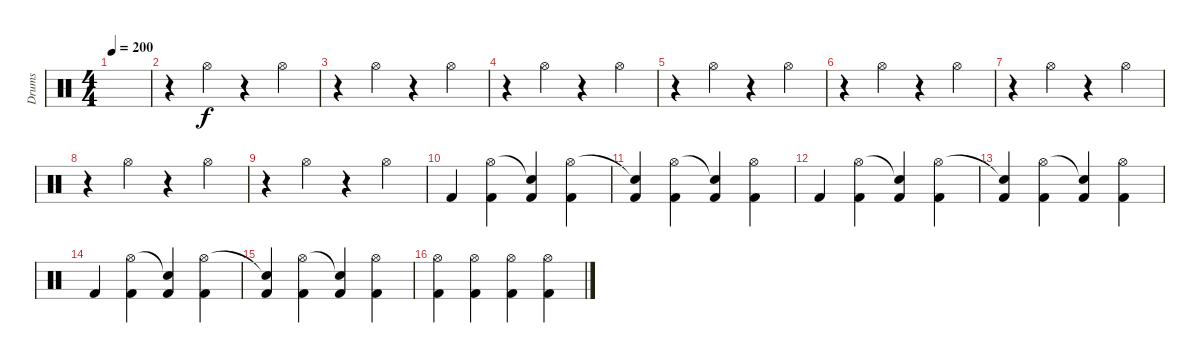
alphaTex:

\track ("Drums" "Drums") {instrument percussion}
\staff {score}
\articulation defaults
\ts (4 4)
\tempo 200
\clef neutral
\ks c
|
r.4 "Hi-Hat (open)".4 r.4 "Hi-Hat (open)".4 |
r.4 "Hi-Hat (open)".4 r.4 "Hi-Hat (open)".4 |
r.4 "Hi-Hat (open)".4 r.4 "Hi-Hat (open)".4 |
r.4 "Hi-Hat (open)".4 r.4 "Hi-Hat (open)".4 |
r.4 "Hi-Hat (open)".4 r.4 "Hi-Hat (open)".4 |
r.4 "Hi-Hat (open)".4 r.4 "Hi-Hat (open)".4 |
r.4 "Hi-Hat (open)".4 r.4 "Hi-Hat (open)".4 |
r.4 "Hi-Hat (open)".4 r.4 "Hi-Hat (open)".4 |
"Kick (hit) 2".4 ("Hi-Hat (open)" "Kick (hit) 2").4 ("Snare (hit)"{t} "Kick (hit) 2").4 ("Hi-Hat (open)" "Kick (hit) 2").4 |
("Snare (hit)"{t} "Kick (hit) 2").4 ("Hi-Hat (open)" "Kick (hit) 2").4 ("Snare (hit)"{t} "Kick (hit) 2").4 ("Hi-Hat (open)" "Kick (hit) 2").4 |
"Kick (hit) 2".4 ("Hi-Hat (open)" "Kick (hit) 2").4 ("Snare (hit)"{t} "Kick (hit) 2").4 ("Hi-Hat (open)" "Kick (hit) 2").4 |
("Snare (hit)"{t} "Kick (hit) 2").4 ("Hi-Hat (open)" "Kick (hit) 2").4 ("Snare (hit)"{t} "Kick (hit) 2").4 ("Hi-Hat (open)" "Kick (hit) 2").4 |
"Kick (hit) 2".4 ("Hi-Hat (open)" "Kick (hit) 2").4 ("Snare (hit)"{t} "Kick (hit) 2").4 ("Hi-Hat (open)" "Kick (hit) 2").4 |
("Snare (hit)"{t} "Kick (hit) 2").4 ("Hi-Hat (open)" "Kick (hit) 2").4 ("Snare (hit)"{t} "Kick (hit) 2").4 ("Hi-Hat (open)" "Kick (hit) 2").4 |
("Hi-Hat (open)" "Kick (hit) 2").4 ("Hi-Hat (open)" "Kick (hit) 2").4 ("Hi-Hat (open)" "Kick (hit) 2").4 ("Hi-Hat (open)" "Kick (hit) 2").4
